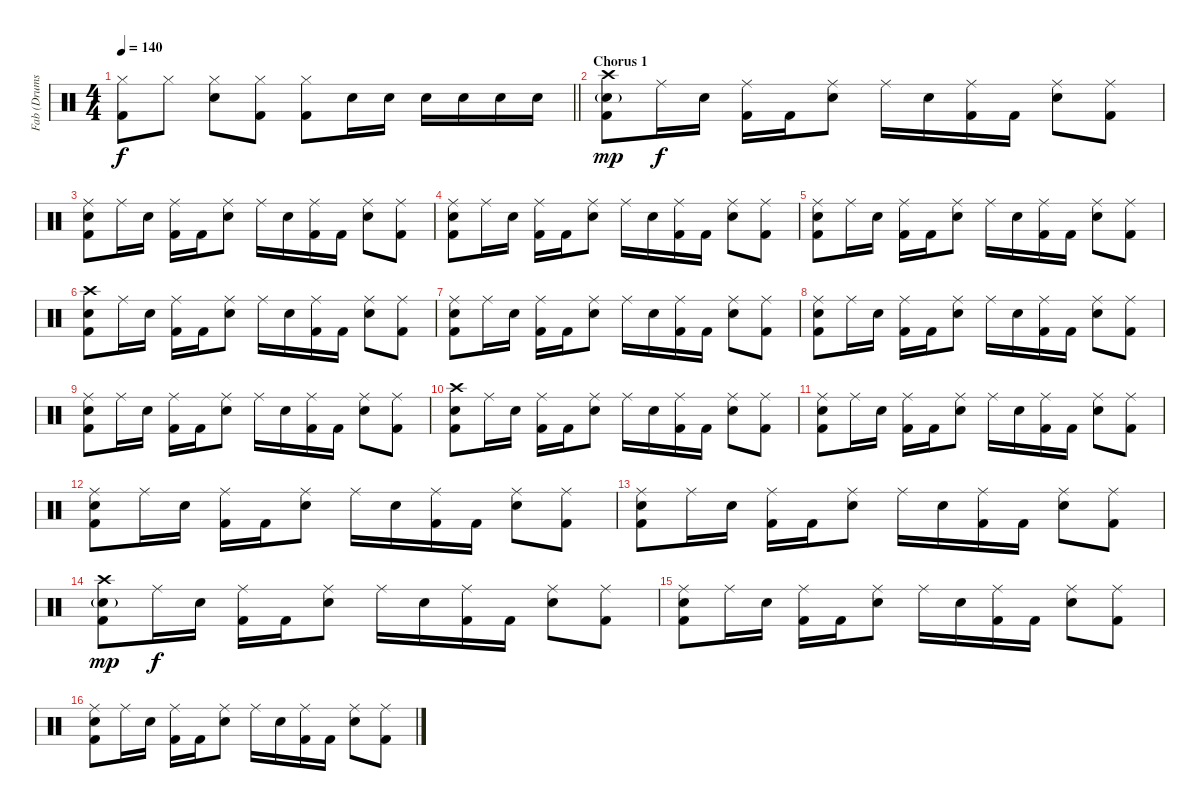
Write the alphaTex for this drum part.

\track ("Fab (Drums)" "Fab (Drums") {instrument percussion}
\staff {score}
\articulation defaults
\ts (4 4)
\tempo 140
\clef neutral
\barLineRight lightlight
\ks c
("Hi-Hat (closed)" "Kick (hit) 2").8{dy f} "Hi-Hat (closed)".8 ("Hi-Hat (closed)" "Snare (hit) 2").8 ("Hi-Hat (closed)" "Kick (hit) 2").8 ("Hi-Hat (closed)" "Kick (hit) 2").8 "Snare (hit) 2".16 "Snare (hit) 2".16 "Snare (hit) 2".16 "Snare (hit) 2".16 "Snare (hit) 2".16 "Snare (hit) 2".16 |
\section ("" "Chorus 1")
("Crash high (hit)" "Snare (hit) 2"{g} "Kick (hit) 2").8{dy mp} "Ride (middle)".16{dy f} "Snare (hit) 2".16 ("Ride (middle)" "Kick (hit) 2").16 "Kick (hit) 2".16 ("Ride (middle)" "Snare (hit) 2").8 "Ride (middle)".16 "Snare (hit) 2".16 ("Ride (middle)" "Kick (hit) 2").16 "Kick (hit) 2".16 ("Ride (middle)" "Snare (hit) 2").8 ("Ride (middle)" "Kick (hit) 2").8 |
("Ride (middle)" "Snare (hit) 2" "Kick (hit) 2").8 "Ride (middle)".16 "Snare (hit) 2".16 ("Ride (middle)" "Kick (hit) 2").16 "Kick (hit) 2".16 ("Ride (middle)" "Snare (hit) 2").8 "Ride (middle)".16 "Snare (hit) 2".16 ("Ride (middle)" "Kick (hit) 2").16 "Kick (hit) 2".16 ("Ride (middle)" "Snare (hit) 2").8 ("Ride (middle)" "Kick (hit) 2").8 |
("Ride (middle)" "Snare (hit) 2" "Kick (hit) 2").8 "Ride (middle)".16 "Snare (hit) 2".16 ("Ride (middle)" "Kick (hit) 2").16 "Kick (hit) 2".16 ("Ride (middle)" "Snare (hit) 2").8 "Ride (middle)".16 "Snare (hit) 2".16 ("Ride (middle)" "Kick (hit) 2").16 "Kick (hit) 2".16 ("Ride (middle)" "Snare (hit) 2").8 ("Ride (middle)" "Kick (hit) 2").8 |
("Ride (middle)" "Snare (hit) 2" "Kick (hit) 2").8 "Ride (middle)".16 "Snare (hit) 2".16 ("Ride (middle)" "Kick (hit) 2").16 "Kick (hit) 2".16 ("Ride (middle)" "Snare (hit) 2").8 "Ride (middle)".16 "Snare (hit) 2".16 ("Ride (middle)" "Kick (hit) 2").16 "Kick (hit) 2".16 ("Ride (middle)" "Snare (hit) 2").8 ("Ride (middle)" "Kick (hit) 2").8 |
("Crash high (hit)" "Snare (hit) 2" "Kick (hit) 2").8 "Ride (middle)".16 "Snare (hit) 2".16 ("Ride (middle)" "Kick (hit) 2").16 "Kick (hit) 2".16 ("Ride (middle)" "Snare (hit) 2").8 "Ride (middle)".16 "Snare (hit) 2".16 ("Ride (middle)" "Kick (hit) 2").16 "Kick (hit) 2".16 ("Ride (middle)" "Snare (hit) 2").8 ("Ride (middle)" "Kick (hit) 2").8 |
("Ride (middle)" "Snare (hit) 2" "Kick (hit) 2").8 "Ride (middle)".16 "Snare (hit) 2".16 ("Ride (middle)" "Kick (hit) 2").16 "Kick (hit) 2".16 ("Ride (middle)" "Snare (hit) 2").8 "Ride (middle)".16 "Snare (hit) 2".16 ("Ride (middle)" "Kick (hit) 2").16 "Kick (hit) 2".16 ("Ride (middle)" "Snare (hit) 2").8 ("Ride (middle)" "Kick (hit) 2").8 |
("Ride (middle)" "Snare (hit) 2" "Kick (hit) 2").8 "Ride (middle)".16 "Snare (hit) 2".16 ("Ride (middle)" "Kick (hit) 2").16 "Kick (hit) 2".16 ("Ride (middle)" "Snare (hit) 2").8 "Ride (middle)".16 "Snare (hit) 2".16 ("Ride (middle)" "Kick (hit) 2").16 "Kick (hit) 2".16 ("Ride (middle)" "Snare (hit) 2").8 ("Ride (middle)" "Kick (hit) 2").8 |
("Ride (middle)" "Snare (hit) 2" "Kick (hit) 2").8 "Ride (middle)".16 "Snare (hit) 2".16 ("Ride (middle)" "Kick (hit) 2").16 "Kick (hit) 2".16 ("Ride (middle)" "Snare (hit) 2").8 "Ride (middle)".16 "Snare (hit) 2".16 ("Ride (middle)" "Kick (hit) 2").16 "Kick (hit) 2".16 ("Ride (middle)" "Snare (hit) 2").8 ("Ride (middle)" "Kick (hit) 2").8 |
("Crash high (hit)" "Snare (hit) 2" "Kick (hit) 2").8 "Ride (middle)".16 "Snare (hit) 2".16 ("Ride (middle)" "Kick (hit) 2").16 "Kick (hit) 2".16 ("Ride (middle)" "Snare (hit) 2").8 "Ride (middle)".16 "Snare (hit) 2".16 ("Ride (middle)" "Kick (hit) 2").16 "Kick (hit) 2".16 ("Ride (middle)" "Snare (hit) 2").8 ("Ride (middle)" "Kick (hit) 2").8 |
("Ride (middle)" "Snare (hit) 2" "Kick (hit) 2").8 "Ride (middle)".16 "Snare (hit) 2".16 ("Ride (middle)" "Kick (hit) 2").16 "Kick (hit) 2".16 ("Ride (middle)" "Snare (hit) 2").8 "Ride (middle)".16 "Snare (hit) 2".16 ("Ride (middle)" "Kick (hit) 2").16 "Kick (hit) 2".16 ("Ride (middle)" "Snare (hit) 2").8 ("Ride (middle)" "Kick (hit) 2").8 |
("Ride (middle)" "Snare (hit) 2" "Kick (hit) 2").8 "Ride (middle)".16 "Snare (hit) 2".16 ("Ride (middle)" "Kick (hit) 2").16 "Kick (hit) 2".16 ("Ride (middle)" "Snare (hit) 2").8 "Ride (middle)".16 "Snare (hit) 2".16 ("Ride (middle)" "Kick (hit) 2").16 "Kick (hit) 2".16 ("Ride (middle)" "Snare (hit) 2").8 ("Ride (middle)" "Kick (hit) 2").8 |
("Ride (middle)" "Snare (hit) 2" "Kick (hit) 2").8 "Ride (middle)".16 "Snare (hit) 2".16 ("Ride (middle)" "Kick (hit) 2").16 "Kick (hit) 2".16 ("Ride (middle)" "Snare (hit) 2").8 "Ride (middle)".16 "Snare (hit) 2".16 ("Ride (middle)" "Kick (hit) 2").16 "Kick (hit) 2".16 ("Ride (middle)" "Snare (hit) 2").8 ("Ride (middle)" "Kick (hit) 2").8 |
("Crash high (hit)" "Snare (hit) 2"{g} "Kick (hit) 2").8{dy mp} "Ride (middle)".16{dy f} "Snare (hit) 2".16 ("Ride (middle)" "Kick (hit) 2").16 "Kick (hit) 2".16 ("Ride (middle)" "Snare (hit) 2").8 "Ride (middle)".16 "Snare (hit) 2".16 ("Ride (middle)" "Kick (hit) 2").16 "Kick (hit) 2".16 ("Ride (middle)" "Snare (hit) 2").8 ("Ride (middle)" "Kick (hit) 2").8 |
("Ride (middle)" "Snare (hit) 2" "Kick (hit) 2").8 "Ride (middle)".16 "Snare (hit) 2".16 ("Ride (middle)" "Kick (hit) 2").16 "Kick (hit) 2".16 ("Ride (middle)" "Snare (hit) 2").8 "Ride (middle)".16 "Snare (hit) 2".16 ("Ride (middle)" "Kick (hit) 2").16 "Kick (hit) 2".16 ("Ride (middle)" "Snare (hit) 2").8 ("Ride (middle)" "Kick (hit) 2").8 |
("Ride (middle)" "Snare (hit) 2" "Kick (hit) 2").8 "Ride (middle)".16 "Snare (hit) 2".16 ("Ride (middle)" "Kick (hit) 2").16 "Kick (hit) 2".16 ("Ride (middle)" "Snare (hit) 2").8 "Ride (middle)".16 "Snare (hit) 2".16 ("Ride (middle)" "Kick (hit) 2").16 "Kick (hit) 2".16 ("Ride (middle)" "Snare (hit) 2").8 ("Ride (middle)" "Kick (hit) 2").8
